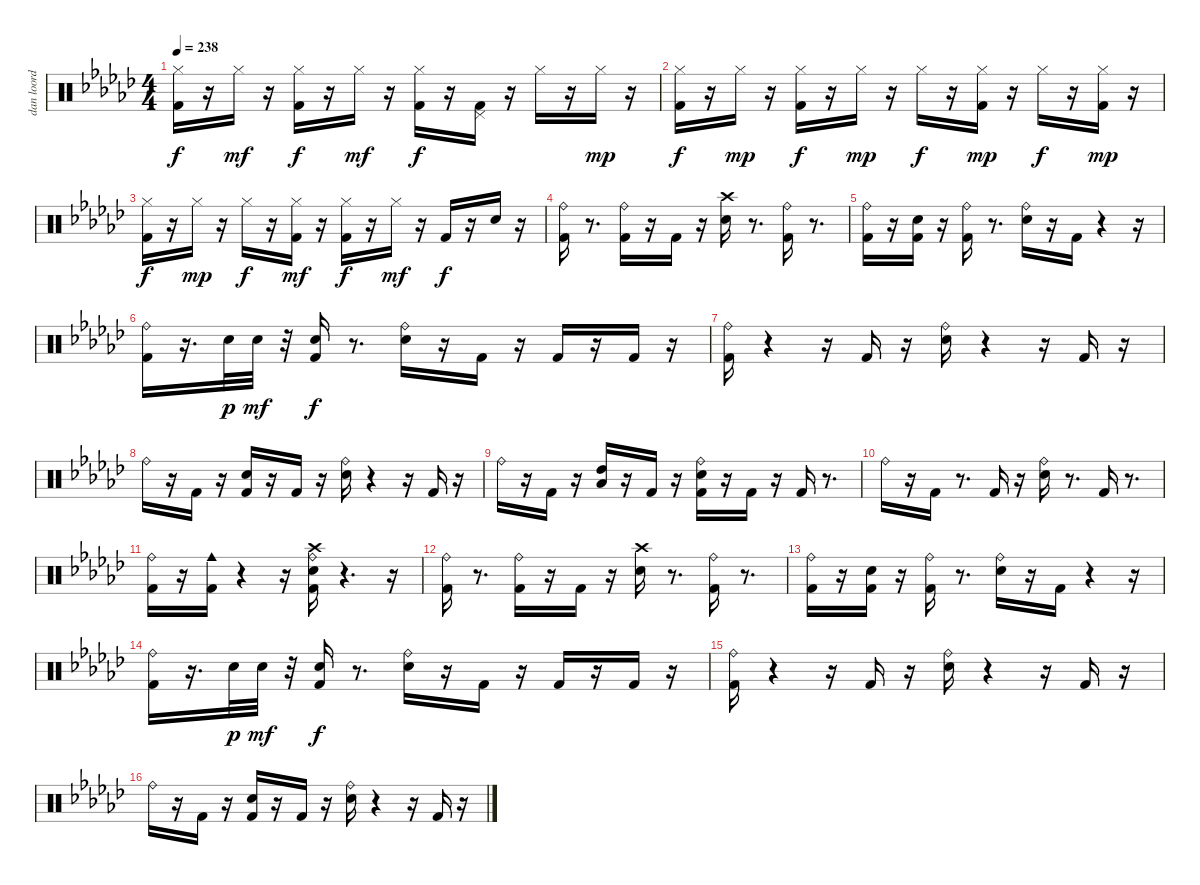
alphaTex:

\track ("dan loord foord" "dan loord ") {instrument percussion}
\staff {score}
\articulation defaults
\ts (4 4)
\tempo 238
\clef neutral
\ks gb
("Kick (hit) 2" "Hi-Hat (closed)").16{dy f} r.16 "Hi-Hat (closed)".16{dy mf} r.16 ("Kick (hit) 2" "Hi-Hat (closed)").16{dy f} r.16 "Hi-Hat (closed)".16{dy mf} r.16 ("Kick (hit) 2" "Hi-Hat (closed)").16{dy f} r.16 ("Kick (hit) 2" "Pedal Hi-Hat (hit)").16 r.16 "Hi-Hat (closed)".16 r.16 "Hi-Hat (closed)".16{dy mp} r.16 |
("Kick (hit) 2" "Hi-Hat (closed)").16{dy f} r.16 "Hi-Hat (closed)".16{dy mp} r.16 ("Kick (hit) 2" "Hi-Hat (closed)").16{dy f} r.16 "Hi-Hat (closed)".16{dy mp} r.16 "Hi-Hat (closed)".16{dy f} r.16 ("Kick (hit) 2" "Hi-Hat (closed)").16{dy mp} r.16 "Hi-Hat (closed)".16{dy f} r.16 ("Kick (hit) 2" "Hi-Hat (closed)").16{dy mp} r.16 |
("Kick (hit) 2" "Hi-Hat (closed)").16{dy f} r.16 "Hi-Hat (closed)".16{dy mp} r.16 "Hi-Hat (closed)".16{dy f} r.16 ("Kick (hit) 2" "Hi-Hat (closed)").16{dy mf} r.16 ("Kick (hit) 2" "Hi-Hat (closed)").16{dy f} r.16 "Hi-Hat (closed)".16{dy mf} r.16 "Kick (hit) 2".16{dy f} r.16 "Snare (hit) 2".16 r.16 |
("Kick (hit) 2" "Ride (bell)").16 r.8{d} ("Kick (hit) 2" "Ride (bell)").16 r.16 "Kick (hit) 2".16 r.16 ("Snare (hit) 2" "Crash high (hit)").16 r.8{d} ("Kick (hit) 2" "Ride (bell)").16 r.8{d} |
("Kick (hit) 2" "Ride (bell)").16 r.16 ("Kick (hit) 2" "Snare (hit) 2").16 r.16 ("Kick (hit) 2" "Ride (bell)").16 r.8{d} ("Snare (hit) 2" "Ride (bell)").16 r.16 "Kick (hit) 2".16 r.4 r.16 |
("Kick (hit) 2" "Ride (bell)").16 r.16{d} "Snare (hit) 2".32{dy p} "Snare (hit) 2".32{dy mf} r.32 ("Kick (hit) 2" "Snare (hit) 2").16{dy f} r.8{d} ("Snare (hit) 2" "Ride (bell)").16 r.16 "Kick (hit) 2".16 r.16 "Kick (hit) 2".16 r.16 "Kick (hit) 2".16 r.16 |
("Kick (hit) 2" "Ride (bell)").16 r.4 r.16 "Kick (hit) 2".16 r.16 ("Snare (hit) 2" "Ride (bell)").16 r.4 r.16 "Kick (hit) 2".16 r.16 |
"Ride (bell)".16 r.16 "Kick (hit) 2".16 r.16 ("Kick (hit) 2" "Snare (hit) 2").16 r.16 "Kick (hit) 2".16 r.16 ("Snare (hit) 2" "Ride (bell)").16 r.4 r.16 "Kick (hit) 2".16 r.16 |
"Ride (bell)".16 r.16 "Kick (hit) 2".16 r.16 ("Low Floor Tom (hit)" "High Tom (hit)").16 r.16 "Kick (hit) 2".16 r.16 ("Kick (hit) 2" "Snare (hit) 2" "Ride (bell)").16 r.16 "Kick (hit) 2".16 r.16 "Kick (hit) 2".16 r.8{d} |
"Ride (bell)".16 r.16 "Kick (hit) 2".16 r.8{d} "Kick (hit) 2".16 r.16 ("Snare (hit) 2" "Ride (bell)").16 r.8{d} "Kick (hit) 2".16 r.8{d} |
("Kick (hit) 2" "Ride (bell)").16 r.16 ("Kick (hit) 2" "Cowbell medium (hit)").16 r.4 r.16 ("Kick (hit) 2" "Snare (hit) 2" "Crash high (hit)" "Ride (bell)").16 r.4{d} r.16 |
("Kick (hit) 2" "Ride (bell)").16 r.8{d} ("Kick (hit) 2" "Ride (bell)").16 r.16 "Kick (hit) 2".16 r.16 ("Snare (hit) 2" "Crash high (hit)").16 r.8{d} ("Kick (hit) 2" "Ride (bell)").16 r.8{d} |
("Kick (hit) 2" "Ride (bell)").16 r.16 ("Kick (hit) 2" "Snare (hit) 2").16 r.16 ("Kick (hit) 2" "Ride (bell)").16 r.8{d} ("Snare (hit) 2" "Ride (bell)").16 r.16 "Kick (hit) 2".16 r.4 r.16 |
("Kick (hit) 2" "Ride (bell)").16 r.16{d} "Snare (hit) 2".32{dy p} "Snare (hit) 2".32{dy mf} r.32 ("Kick (hit) 2" "Snare (hit) 2").16{dy f} r.8{d} ("Snare (hit) 2" "Ride (bell)").16 r.16 "Kick (hit) 2".16 r.16 "Kick (hit) 2".16 r.16 "Kick (hit) 2".16 r.16 |
("Kick (hit) 2" "Ride (bell)").16 r.4 r.16 "Kick (hit) 2".16 r.16 ("Snare (hit) 2" "Ride (bell)").16 r.4 r.16 "Kick (hit) 2".16 r.16 |
"Ride (bell)".16 r.16 "Kick (hit) 2".16 r.16 ("Kick (hit) 2" "Snare (hit) 2").16 r.16 "Kick (hit) 2".16 r.16 ("Snare (hit) 2" "Ride (bell)").16 r.4 r.16 "Kick (hit) 2".16 r.16
